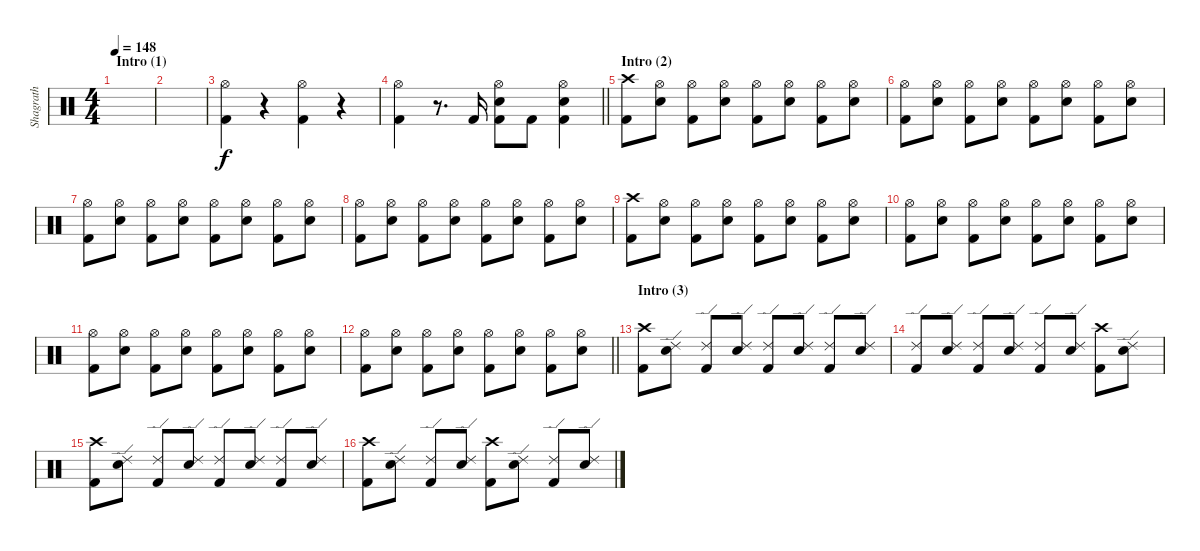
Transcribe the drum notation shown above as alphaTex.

\track ("Shagrath" "Shagrath") {instrument percussion}
\staff {score}
\articulation defaults
\ts (4 4)
\section ("" "Intro (1)")
\tempo 148
\clef neutral
\ks c
|
|
("Hi-Hat (open)" "Kick (hit) 2").4 r.4 ("Hi-Hat (open)" "Kick (hit) 2").4 r.4 |
\barLineRight lightlight
("Hi-Hat (open)" "Kick (hit) 2").4 r.8{d} "Kick (hit) 2".16 ("Hi-Hat (open)" "Electric Snare (hit)" "Kick (hit) 2").8 "Kick (hit) 2".8 ("Hi-Hat (open)" "Electric Snare (hit)" "Kick (hit) 2").4 |
\section ("" "Intro (2)")
("Crash high (hit)" "Kick (hit) 2").8 ("Hi-Hat (open)" "Electric Snare (hit)").8 ("Hi-Hat (open)" "Kick (hit) 2").8 ("Hi-Hat (open)" "Electric Snare (hit)").8 ("Hi-Hat (open)" "Kick (hit) 2").8 ("Hi-Hat (open)" "Electric Snare (hit)").8 ("Hi-Hat (open)" "Kick (hit) 2").8 ("Hi-Hat (open)" "Electric Snare (hit)").8 |
("Hi-Hat (open)" "Kick (hit) 2").8 ("Hi-Hat (open)" "Electric Snare (hit)").8 ("Hi-Hat (open)" "Kick (hit) 2").8 ("Hi-Hat (open)" "Electric Snare (hit)").8 ("Hi-Hat (open)" "Kick (hit) 2").8 ("Hi-Hat (open)" "Electric Snare (hit)").8 ("Hi-Hat (open)" "Kick (hit) 2").8 ("Hi-Hat (open)" "Electric Snare (hit)").8 |
("Hi-Hat (open)" "Kick (hit) 2").8 ("Hi-Hat (open)" "Electric Snare (hit)").8 ("Hi-Hat (open)" "Kick (hit) 2").8 ("Hi-Hat (open)" "Electric Snare (hit)").8 ("Hi-Hat (open)" "Kick (hit) 2").8 ("Hi-Hat (open)" "Electric Snare (hit)").8 ("Hi-Hat (open)" "Kick (hit) 2").8 ("Hi-Hat (open)" "Electric Snare (hit)").8 |
("Hi-Hat (open)" "Kick (hit) 2").8 ("Hi-Hat (open)" "Electric Snare (hit)").8 ("Hi-Hat (open)" "Kick (hit) 2").8 ("Hi-Hat (open)" "Electric Snare (hit)").8 ("Hi-Hat (open)" "Kick (hit) 2").8 ("Hi-Hat (open)" "Electric Snare (hit)").8 ("Hi-Hat (open)" "Kick (hit) 2").8 ("Hi-Hat (open)" "Electric Snare (hit)").8 |
("Crash high (hit)" "Kick (hit) 2").8 ("Hi-Hat (open)" "Electric Snare (hit)").8 ("Hi-Hat (open)" "Kick (hit) 2").8 ("Hi-Hat (open)" "Electric Snare (hit)").8 ("Hi-Hat (open)" "Kick (hit) 2").8 ("Hi-Hat (open)" "Electric Snare (hit)").8 ("Hi-Hat (open)" "Kick (hit) 2").8 ("Hi-Hat (open)" "Electric Snare (hit)").8 |
("Hi-Hat (open)" "Kick (hit) 2").8 ("Hi-Hat (open)" "Electric Snare (hit)").8 ("Hi-Hat (open)" "Kick (hit) 2").8 ("Hi-Hat (open)" "Electric Snare (hit)").8 ("Hi-Hat (open)" "Kick (hit) 2").8 ("Hi-Hat (open)" "Electric Snare (hit)").8 ("Hi-Hat (open)" "Kick (hit) 2").8 ("Hi-Hat (open)" "Electric Snare (hit)").8 |
("Hi-Hat (open)" "Kick (hit) 2").8 ("Hi-Hat (open)" "Electric Snare (hit)").8 ("Hi-Hat (open)" "Kick (hit) 2").8 ("Hi-Hat (open)" "Electric Snare (hit)").8 ("Hi-Hat (open)" "Kick (hit) 2").8 ("Hi-Hat (open)" "Electric Snare (hit)").8 ("Hi-Hat (open)" "Kick (hit) 2").8 ("Hi-Hat (open)" "Electric Snare (hit)").8 |
\barLineRight lightlight
("Hi-Hat (open)" "Kick (hit) 2").8 ("Hi-Hat (open)" "Electric Snare (hit)").8 ("Hi-Hat (open)" "Kick (hit) 2").8 ("Hi-Hat (open)" "Electric Snare (hit)").8 ("Hi-Hat (open)" "Kick (hit) 2").8 ("Hi-Hat (open)" "Electric Snare (hit)").8 ("Hi-Hat (open)" "Kick (hit) 2").8 ("Hi-Hat (open)" "Electric Snare (hit)").8 |
\section ("" "Intro (3)")
("Crash high (hit)" "Kick (hit) 2").8 ("Ride (edge) 2" "Electric Snare (hit)").8 ("Ride (edge) 2" "Kick (hit) 2").8 ("Ride (edge) 2" "Electric Snare (hit)").8 ("Ride (edge) 2" "Kick (hit) 2").8 ("Ride (edge) 2" "Electric Snare (hit)").8 ("Ride (edge) 2" "Kick (hit) 2").8 ("Ride (edge) 2" "Electric Snare (hit)").8 |
("Ride (edge) 2" "Kick (hit) 2").8 ("Ride (edge) 2" "Electric Snare (hit)").8 ("Ride (edge) 2" "Kick (hit) 2").8 ("Ride (edge) 2" "Electric Snare (hit)").8 ("Ride (edge) 2" "Kick (hit) 2").8 ("Ride (edge) 2" "Electric Snare (hit)").8 ("Crash high (hit)" "Kick (hit) 2").8 ("Ride (edge) 2" "Electric Snare (hit)").8 |
("Crash high (hit)" "Kick (hit) 2").8 ("Ride (edge) 2" "Electric Snare (hit)").8 ("Ride (edge) 2" "Kick (hit) 2").8 ("Ride (edge) 2" "Electric Snare (hit)").8 ("Ride (edge) 2" "Kick (hit) 2").8 ("Ride (edge) 2" "Electric Snare (hit)").8 ("Ride (edge) 2" "Kick (hit) 2").8 ("Ride (edge) 2" "Electric Snare (hit)").8 |
("Crash high (hit)" "Kick (hit) 2").8 ("Ride (edge) 2" "Electric Snare (hit)").8 ("Ride (edge) 2" "Kick (hit) 2").8 ("Ride (edge) 2" "Electric Snare (hit)").8 ("Crash high (hit)" "Kick (hit) 2").8 ("Ride (edge) 2" "Electric Snare (hit)").8 ("Ride (edge) 2" "Kick (hit) 2").8 ("Ride (edge) 2" "Electric Snare (hit)").8
